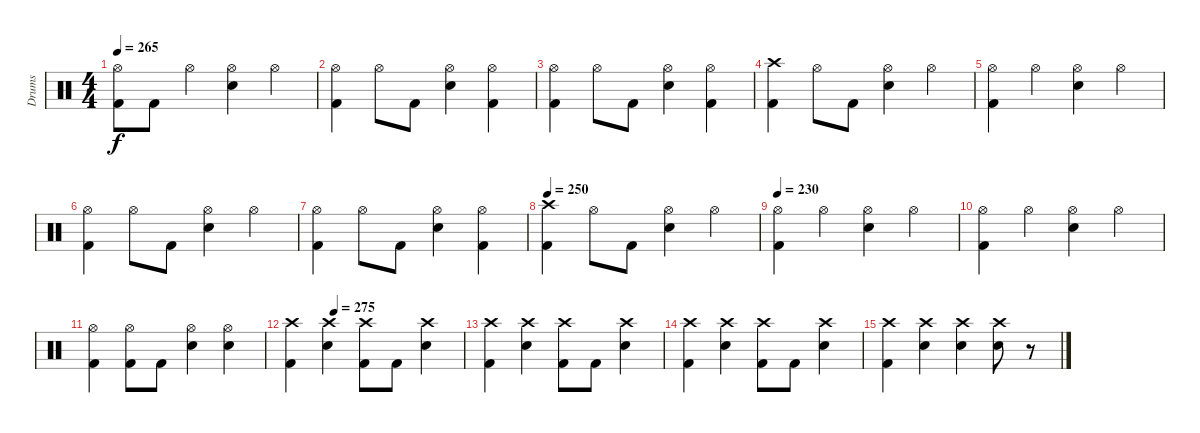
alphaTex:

\track ("Drums" "Drums") {instrument percussion}
\staff {score}
\articulation defaults
\ts (4 4)
\tempo 265
\clef neutral
\ks c
("Kick (hit) 2" "Hi-Hat (open)").8{dy f} "Kick (hit) 2".8 "Hi-Hat (open)".4 ("Electric Snare (hit)" "Hi-Hat (open)").4 "Hi-Hat (open)".4 |
("Kick (hit) 2" "Hi-Hat (open)").4 "Hi-Hat (open)".8 "Kick (hit) 2".8 ("Electric Snare (hit)" "Hi-Hat (open)").4 ("Kick (hit) 2" "Hi-Hat (open)").4 |
("Kick (hit) 2" "Hi-Hat (open)").4 "Hi-Hat (open)".8 "Kick (hit) 2".8 ("Electric Snare (hit)" "Hi-Hat (open)").4 ("Kick (hit) 2" "Hi-Hat (open)").4 |
("Kick (hit) 2" "Crash high (hit)").4 "Hi-Hat (open)".8 "Kick (hit) 2".8 ("Electric Snare (hit)" "Hi-Hat (open)").4 "Hi-Hat (open)".4 |
("Kick (hit) 2" "Hi-Hat (open)").4 "Hi-Hat (open)".4 ("Electric Snare (hit)" "Hi-Hat (open)").4 "Hi-Hat (open)".4 |
("Kick (hit) 2" "Hi-Hat (open)").4 "Hi-Hat (open)".8 "Kick (hit) 2".8 ("Electric Snare (hit)" "Hi-Hat (open)").4 "Hi-Hat (open)".4 |
("Kick (hit) 2" "Hi-Hat (open)").4 "Hi-Hat (open)".8 "Kick (hit) 2".8 ("Electric Snare (hit)" "Hi-Hat (open)").4 ("Kick (hit) 2" "Hi-Hat (open)").4 |
\tempo 250
("Kick (hit) 2" "Crash high (hit)").4 "Hi-Hat (open)".8 "Kick (hit) 2".8 ("Electric Snare (hit)" "Hi-Hat (open)").4 "Hi-Hat (open)".4 |
\tempo 230
("Kick (hit) 2" "Hi-Hat (open)").4 "Hi-Hat (open)".4 ("Electric Snare (hit)" "Hi-Hat (open)").4 "Hi-Hat (open)".4 |
("Kick (hit) 2" "Hi-Hat (open)").4 "Hi-Hat (open)".4 ("Electric Snare (hit)" "Hi-Hat (open)").4 "Hi-Hat (open)".4 |
("Kick (hit) 2" "Hi-Hat (open)").4 ("Kick (hit) 2" "Hi-Hat (open)").8 "Kick (hit) 2".8 ("Electric Snare (hit)" "Hi-Hat (open)").4 ("Electric Snare (hit)" "Hi-Hat (open)").4 |
\tempo (275 0.25)
("Kick (hit) 2" "Crash high (hit)").4 ("Electric Snare (hit)" "Crash high (hit)").4 ("Kick (hit) 2" "Crash high (hit)").8 "Kick (hit) 2".8 ("Electric Snare (hit)" "Crash high (hit)").4 |
("Kick (hit) 2" "Crash high (hit)").4 ("Electric Snare (hit)" "Crash high (hit)").4 ("Kick (hit) 2" "Crash high (hit)").8 "Kick (hit) 2".8 ("Electric Snare (hit)" "Crash high (hit)").4 |
("Kick (hit) 2" "Crash high (hit)").4 ("Electric Snare (hit)" "Crash high (hit)").4 ("Kick (hit) 2" "Crash high (hit)").8 "Kick (hit) 2".8 ("Electric Snare (hit)" "Crash high (hit)").4 |
("Kick (hit) 2" "Crash high (hit)").4 ("Electric Snare (hit)" "Crash high (hit)").4 ("Electric Snare (hit)" "Crash high (hit)").4 ("Electric Snare (hit)" "Crash high (hit)").8 r.8
